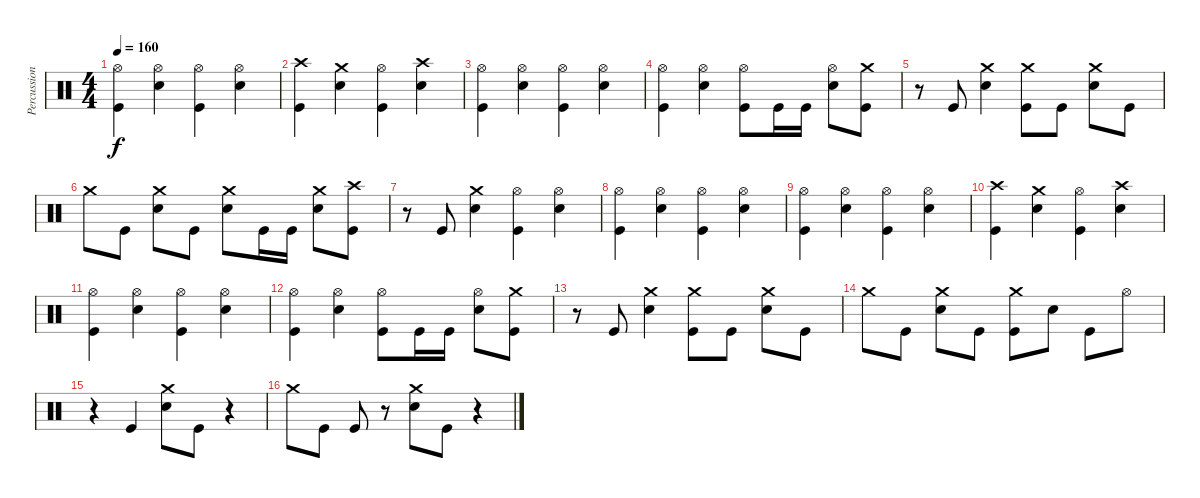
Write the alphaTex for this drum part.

\track ("Percussion" "Percussion") {instrument percussion}
\staff {score}
\articulation defaults
\ts (4 4)
\tempo 160
\clef neutral
\ks c
("Hi-Hat (open)" "Kick (hit)").4{dy f} ("Hi-Hat (open)" "Electric Snare (hit)").4 ("Hi-Hat (open)" "Kick (hit)").4 ("Hi-Hat (open)" "Electric Snare (hit)").4 |
("Crash high (hit)" "Kick (hit)").4 ("Crash medium (hit)" "Electric Snare (hit)").4 ("Hi-Hat (open)" "Kick (hit)").4 ("Crash high (hit)" "Electric Snare (hit)").4 |
("Hi-Hat (open)" "Kick (hit)").4 ("Hi-Hat (open)" "Electric Snare (hit)").4 ("Hi-Hat (open)" "Kick (hit)").4 ("Hi-Hat (open)" "Electric Snare (hit)").4 |
("Hi-Hat (open)" "Kick (hit)").4 ("Hi-Hat (open)" "Electric Snare (hit)").4 ("Hi-Hat (open)" "Kick (hit)").8 "Kick (hit)".16 "Kick (hit)".16 ("Hi-Hat (open)" "Electric Snare (hit)").8 ("Crash medium (hit)" "Kick (hit)").8 |
r.8 "Kick (hit)".8 ("Crash medium (hit)" "Electric Snare (hit)").4 ("Crash medium (hit)" "Kick (hit)").8 "Kick (hit)".8 ("Crash medium (hit)" "Electric Snare (hit)").8 "Kick (hit)".8 |
"Crash medium (hit)".8 "Kick (hit)".8 ("Crash medium (hit)" "Electric Snare (hit)").8 "Kick (hit)".8 ("Crash medium (hit)" "Electric Snare (hit)").8 "Kick (hit)".16 "Kick (hit)".16 ("Crash medium (hit)" "Electric Snare (hit)").8 ("Crash high (hit)" "Kick (hit)").8 |
r.8 "Kick (hit)".8 ("Crash medium (hit)" "Electric Snare (hit)").4 ("Hi-Hat (open)" "Kick (hit)").4 ("Hi-Hat (open)" "Electric Snare (hit)").4 |
("Hi-Hat (open)" "Kick (hit)").4 ("Hi-Hat (open)" "Electric Snare (hit)").4 ("Hi-Hat (open)" "Kick (hit)").4 ("Hi-Hat (open)" "Electric Snare (hit)").4 |
("Hi-Hat (open)" "Kick (hit)").4 ("Hi-Hat (open)" "Electric Snare (hit)").4 ("Hi-Hat (open)" "Kick (hit)").4 ("Hi-Hat (open)" "Electric Snare (hit)").4 |
("Crash high (hit)" "Kick (hit)").4 ("Crash medium (hit)" "Electric Snare (hit)").4 ("Hi-Hat (open)" "Kick (hit)").4 ("Crash high (hit)" "Electric Snare (hit)").4 |
("Hi-Hat (open)" "Kick (hit)").4 ("Hi-Hat (open)" "Electric Snare (hit)").4 ("Hi-Hat (open)" "Kick (hit)").4 ("Hi-Hat (open)" "Electric Snare (hit)").4 |
("Hi-Hat (open)" "Kick (hit)").4 ("Hi-Hat (open)" "Electric Snare (hit)").4 ("Hi-Hat (open)" "Kick (hit)").8 "Kick (hit)".16 "Kick (hit)".16 ("Hi-Hat (open)" "Electric Snare (hit)").8 ("Crash medium (hit)" "Kick (hit)").8 |
r.8 "Kick (hit)".8 ("Crash medium (hit)" "Electric Snare (hit)").4 ("Crash medium (hit)" "Kick (hit)").8 "Kick (hit)".8 ("Crash medium (hit)" "Electric Snare (hit)").8 "Kick (hit)".8 |
"Crash medium (hit)".8 "Kick (hit)".8 ("Crash medium (hit)" "Electric Snare (hit)").8 "Kick (hit)".8 ("Crash medium (hit)" "Kick (hit)").8 "Electric Snare (hit)".8 "Kick (hit)".8 "Hi-Hat (open)".8 |
r.4 "Kick (hit)".4 ("Crash medium (hit)" "Electric Snare (hit)").8 "Kick (hit)".8 r.4 |
"Crash medium (hit)".8 "Kick (hit)".8 "Kick (hit)".8 r.8 ("Crash medium (hit)" "Electric Snare (hit)").8 "Kick (hit)".8 r.4
